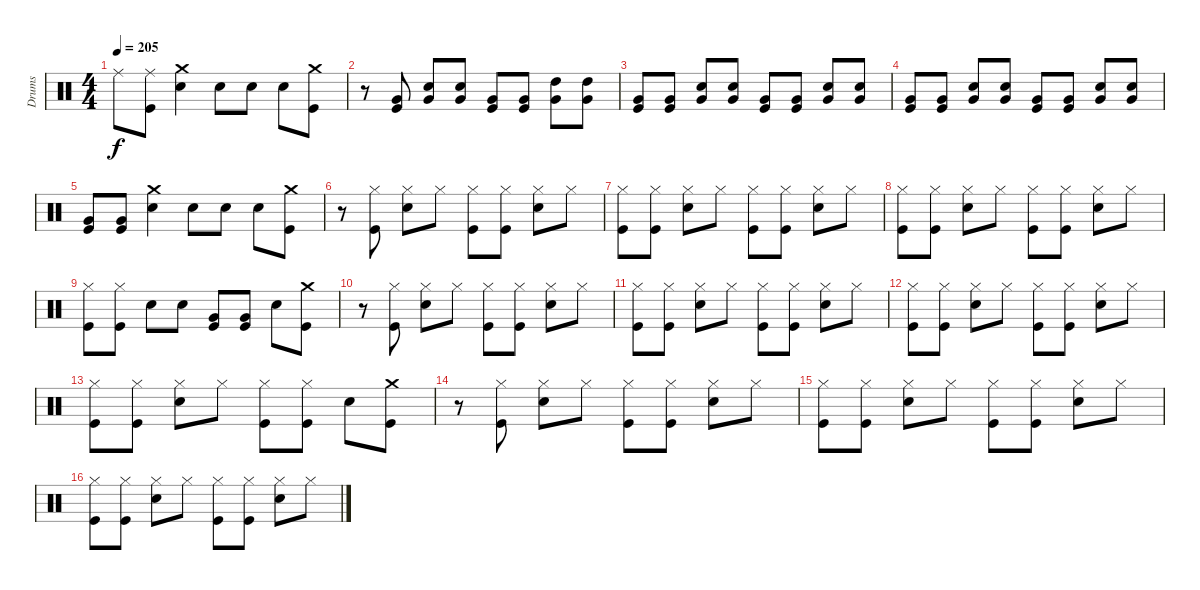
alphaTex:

\track ("Drums" "Drums") {instrument percussion}
\staff {score}
\articulation defaults
\ts (4 4)
\tempo 205
\clef neutral
\ks c "Ride (middle)".8{dy f}
("Ride (middle)" "Kick (hit)").8 ("Crash medium (hit)" "Electric Snare (hit)").4 "Electric Snare (hit)".8 "Electric Snare (hit)".8 "Electric Snare (hit)".8 ("Crash medium (hit)" "Kick (hit)").8 |
r.8 ("Very Low Tom (hit)" "Kick (hit)").8 ("Very Low Tom (hit)" "Electric Snare (hit)").8 ("Very Low Tom (hit)" "Electric Snare (hit)").8 ("Very Low Tom (hit)" "Kick (hit)").8 ("Very Low Tom (hit)" "Kick (hit)").8 ("Very Low Tom (hit)" "High Tom (hit)").8 ("Very Low Tom (hit)" "High Tom (hit)").8 |
("Very Low Tom (hit)" "Kick (hit)").8 ("Very Low Tom (hit)" "Kick (hit)").8 ("Very Low Tom (hit)" "Electric Snare (hit)").8 ("Very Low Tom (hit)" "Electric Snare (hit)").8 ("Very Low Tom (hit)" "Kick (hit)").8 ("Very Low Tom (hit)" "Kick (hit)").8 ("Very Low Tom (hit)" "Electric Snare (hit)").8 ("Very Low Tom (hit)" "Electric Snare (hit)").8 |
("Very Low Tom (hit)" "Kick (hit)").8 ("Very Low Tom (hit)" "Kick (hit)").8 ("Very Low Tom (hit)" "Electric Snare (hit)").8 ("Very Low Tom (hit)" "Electric Snare (hit)").8 ("Very Low Tom (hit)" "Kick (hit)").8 ("Very Low Tom (hit)" "Kick (hit)").8 ("Very Low Tom (hit)" "Electric Snare (hit)").8 ("Very Low Tom (hit)" "Electric Snare (hit)").8 |
("Very Low Tom (hit)" "Kick (hit)").8 ("Very Low Tom (hit)" "Kick (hit)").8 ("Crash medium (hit)" "Electric Snare (hit)").4 "Electric Snare (hit)".8 "Electric Snare (hit)".8 "Electric Snare (hit)".8 ("Crash medium (hit)" "Kick (hit)").8 |
r.8 ("Hi-Hat (closed)" "Kick (hit)").8 ("Hi-Hat (closed)" "Electric Snare (hit)").8 "Hi-Hat (closed)".8 ("Hi-Hat (closed)" "Kick (hit)").8 ("Hi-Hat (closed)" "Kick (hit)").8 ("Hi-Hat (closed)" "Electric Snare (hit)").8 "Hi-Hat (closed)".8 |
("Hi-Hat (closed)" "Kick (hit)").8 ("Hi-Hat (closed)" "Kick (hit)").8 ("Hi-Hat (closed)" "Electric Snare (hit)").8 "Hi-Hat (closed)".8 ("Hi-Hat (closed)" "Kick (hit)").8 ("Hi-Hat (closed)" "Kick (hit)").8 ("Hi-Hat (closed)" "Electric Snare (hit)").8 "Hi-Hat (closed)".8 |
("Hi-Hat (closed)" "Kick (hit)").8 ("Hi-Hat (closed)" "Kick (hit)").8 ("Hi-Hat (closed)" "Electric Snare (hit)").8 "Hi-Hat (closed)".8 ("Hi-Hat (closed)" "Kick (hit)").8 ("Hi-Hat (closed)" "Kick (hit)").8 ("Hi-Hat (closed)" "Electric Snare (hit)").8 "Hi-Hat (closed)".8 |
("Hi-Hat (closed)" "Kick (hit)").8 ("Hi-Hat (closed)" "Kick (hit)").8 "Electric Snare (hit)".8 "Electric Snare (hit)".8 ("Very Low Tom (hit)" "Kick (hit)").8 ("Very Low Tom (hit)" "Kick (hit)").8 "Electric Snare (hit)".8 ("Crash medium (hit)" "Kick (hit)").8 |
r.8 ("Hi-Hat (closed)" "Kick (hit)").8 ("Hi-Hat (closed)" "Electric Snare (hit)").8 "Hi-Hat (closed)".8 ("Hi-Hat (closed)" "Kick (hit)").8 ("Hi-Hat (closed)" "Kick (hit)").8 ("Hi-Hat (closed)" "Electric Snare (hit)").8 "Hi-Hat (closed)".8 |
("Hi-Hat (closed)" "Kick (hit)").8 ("Hi-Hat (closed)" "Kick (hit)").8 ("Hi-Hat (closed)" "Electric Snare (hit)").8 "Hi-Hat (closed)".8 ("Hi-Hat (closed)" "Kick (hit)").8 ("Hi-Hat (closed)" "Kick (hit)").8 ("Hi-Hat (closed)" "Electric Snare (hit)").8 "Hi-Hat (closed)".8 |
("Hi-Hat (closed)" "Kick (hit)").8 ("Hi-Hat (closed)" "Kick (hit)").8 ("Hi-Hat (closed)" "Electric Snare (hit)").8 "Hi-Hat (closed)".8 ("Hi-Hat (closed)" "Kick (hit)").8 ("Hi-Hat (closed)" "Kick (hit)").8 ("Hi-Hat (closed)" "Electric Snare (hit)").8 "Hi-Hat (closed)".8 |
("Hi-Hat (closed)" "Kick (hit)").8 ("Hi-Hat (closed)" "Kick (hit)").8 ("Hi-Hat (closed)" "Electric Snare (hit)").8 "Hi-Hat (closed)".8 ("Hi-Hat (closed)" "Kick (hit)").8 ("Hi-Hat (closed)" "Kick (hit)").8 "Electric Snare (hit)".8 ("Crash medium (hit)" "Kick (hit)").8 |
r.8 ("Hi-Hat (closed)" "Kick (hit)").8 ("Hi-Hat (closed)" "Electric Snare (hit)").8 "Hi-Hat (closed)".8 ("Hi-Hat (closed)" "Kick (hit)").8 ("Hi-Hat (closed)" "Kick (hit)").8 ("Hi-Hat (closed)" "Electric Snare (hit)").8 "Hi-Hat (closed)".8 |
("Hi-Hat (closed)" "Kick (hit)").8 ("Hi-Hat (closed)" "Kick (hit)").8 ("Hi-Hat (closed)" "Electric Snare (hit)").8 "Hi-Hat (closed)".8 ("Hi-Hat (closed)" "Kick (hit)").8 ("Hi-Hat (closed)" "Kick (hit)").8 ("Hi-Hat (closed)" "Electric Snare (hit)").8 "Hi-Hat (closed)".8 |
("Hi-Hat (closed)" "Kick (hit)").8 ("Hi-Hat (closed)" "Kick (hit)").8 ("Hi-Hat (closed)" "Electric Snare (hit)").8 "Hi-Hat (closed)".8 ("Hi-Hat (closed)" "Kick (hit)").8 ("Hi-Hat (closed)" "Kick (hit)").8 ("Hi-Hat (closed)" "Electric Snare (hit)").8 "Hi-Hat (closed)".8
